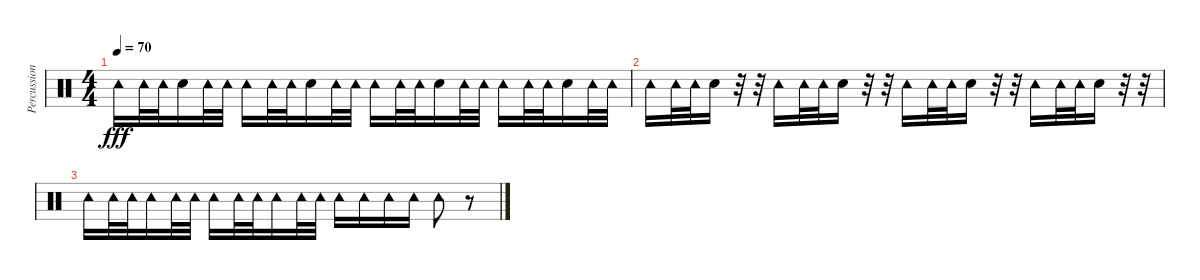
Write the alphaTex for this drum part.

\track ("Percussion" "Percussion") {instrument percussion}
\staff
\articulation defaults
\ts (4 4)
\tempo 70
\clef neutral
\ks c "Tambourine (hit)".16{dy fff} "Tambourine (hit)".32 "Tambourine (hit)".32 "Electric Snare (hit)".16 "Tambourine (hit)".32 "Tambourine (hit)".32 "Tambourine (hit)".16 "Tambourine (hit)".32 "Tambourine (hit)".32 "Electric Snare (hit)".16 "Tambourine (hit)".32 "Tambourine (hit)".32 "Tambourine (hit)".16 "Tambourine (hit)".32 "Tambourine (hit)".32 "Electric Snare (hit)".16 "Tambourine (hit)".32 "Tambourine (hit)".32 "Tambourine (hit)".16 "Tambourine (hit)".32 "Tambourine (hit)".32 "Electric Snare (hit)".16 "Tambourine (hit)".32 "Tambourine (hit)".32
|
"Tambourine (hit)".16 "Tambourine (hit)".32 "Tambourine (hit)".32 "Electric Snare (hit)".16 r.32 r.32 "Tambourine (hit)".16 "Tambourine (hit)".32 "Tambourine (hit)".32 "Electric Snare (hit)".16 r.32 r.32 "Tambourine (hit)".16 "Tambourine (hit)".32 "Tambourine (hit)".32 "Electric Snare (hit)".16 r.32 r.32 "Tambourine (hit)".16 "Tambourine (hit)".32 "Tambourine (hit)".32 "Electric Snare (hit)".16 r.32 r.32 |
"Tambourine (hit)".16 "Tambourine (hit)".32 "Tambourine (hit)".32 "Tambourine (hit)".16 "Tambourine (hit)".32 "Tambourine (hit)".32 "Tambourine (hit)".16 "Tambourine (hit)".32 "Tambourine (hit)".32 "Tambourine (hit)".16 "Tambourine (hit)".32 "Tambourine (hit)".32 "Tambourine (hit)".16 "Tambourine (hit)".16 "Tambourine (hit)".16 "Tambourine (hit)".16 "Tambourine (hit)".8 r.8
